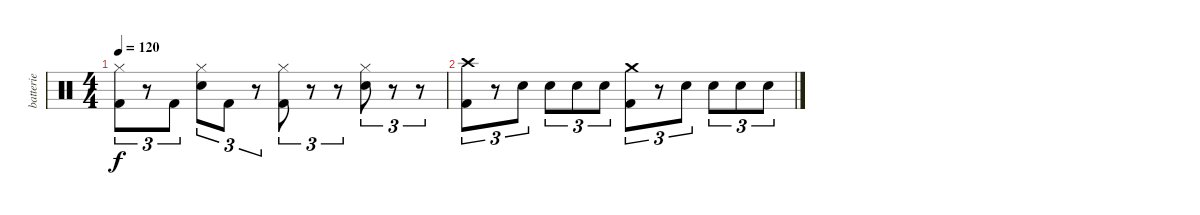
\track ("batterie" "batterie") {instrument percussion}
\staff {score}
\articulation defaults
\ts (4 4)
\tempo 120
\clef neutral
\ks c
("Kick (hit) 2" "Hi-Hat (closed)").8{tu (3 2) dy f} r.8{tu (3 2)} "Kick (hit) 2".8{tu (3 2)} ("Snare (hit) 2" "Hi-Hat (closed)").8{tu (3 2)} "Kick (hit) 2".8{tu (3 2)} r.8{tu (3 2)} ("Kick (hit) 2" "Hi-Hat (closed)").8{tu (3 2)} r.8{tu (3 2)} r.8{tu (3 2)} ("Snare (hit) 2" "Hi-Hat (closed)").8{tu (3 2)} r.8{tu (3 2)} r.8{tu (3 2)} |
("Crash high (hit)" "Kick (hit) 2").8{tu (3 2)} r.8{tu (3 2)} "Snare (hit) 2".8{tu (3 2)} "Snare (hit) 2".8{tu (3 2)} "Snare (hit) 2".8{tu (3 2)} "Snare (hit) 2".8{tu (3 2)} ("Crash medium (hit)" "Kick (hit) 2").8{tu (3 2)} r.8{tu (3 2)} "Snare (hit) 2".8{tu (3 2)} "Snare (hit) 2".8{tu (3 2)} "Snare (hit) 2".8{tu (3 2)} "Snare (hit) 2".8{tu (3 2)}
